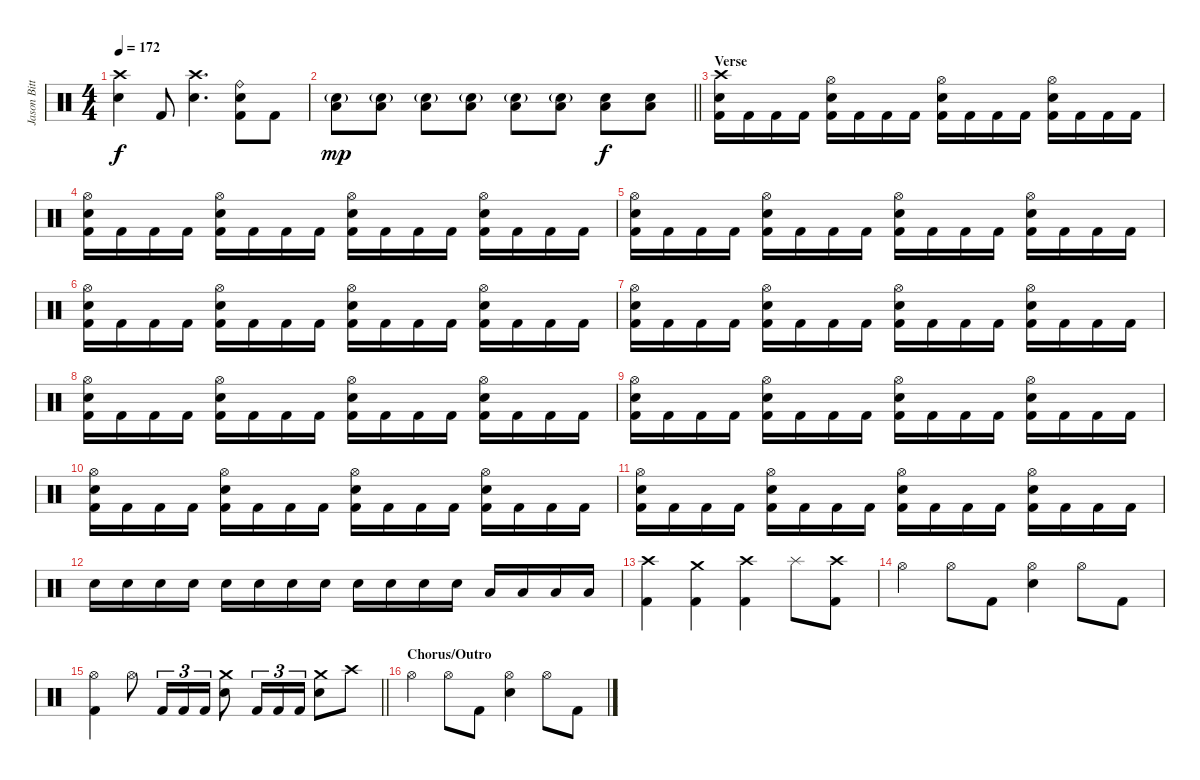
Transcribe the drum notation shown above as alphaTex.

\track ("Jason Bittner" "Jason Bitt") {instrument percussion}
\staff {score}
\articulation defaults
\ts (4 4)
\tempo 172
\clef neutral
\ks c
("Crash high (hit)" "Electric Snare (hit)").4{dy f} "Kick (hit) 2".8 ("Crash high (hit)" "Electric Snare (hit)").4{d} ("Ride (bell)" "Electric Snare (hit)" "Kick (hit) 2").8 "Kick (hit) 2".8{volume 5} |
\barLineRight lightlight
("Low Floor Tom (hit)" "Electric Snare (hit)"{g}).8{dy mp volume 13} ("Low Floor Tom (hit)" "Electric Snare (hit)"{g}).8 ("Low Floor Tom (hit)" "Electric Snare (hit)"{g}).8 ("Low Floor Tom (hit)" "Electric Snare (hit)"{g}).8 ("Low Floor Tom (hit)" "Electric Snare (hit)"{g}).8 ("Low Floor Tom (hit)" "Electric Snare (hit)"{g}).8 ("Low Floor Tom (hit)" "Electric Snare (hit)").8{dy f} ("Low Floor Tom (hit)" "Electric Snare (hit)").8 |
\section ("" "Verse")
("Crash high (hit)" "Electric Snare (hit)" "Kick (hit) 2").16 "Kick (hit) 2".16 "Kick (hit) 2".16 "Kick (hit) 2".16 ("Hi-Hat (open)" "Electric Snare (hit)" "Kick (hit) 2").16 "Kick (hit) 2".16 "Kick (hit) 2".16 "Kick (hit) 2".16 ("Hi-Hat (open)" "Electric Snare (hit)" "Kick (hit) 2").16 "Kick (hit) 2".16 "Kick (hit) 2".16 "Kick (hit) 2".16 ("Hi-Hat (open)" "Electric Snare (hit)" "Kick (hit) 2").16 "Kick (hit) 2".16 "Kick (hit) 2".16 "Kick (hit) 2".16 |
("Hi-Hat (open)" "Electric Snare (hit)" "Kick (hit) 2").16 "Kick (hit) 2".16 "Kick (hit) 2".16 "Kick (hit) 2".16 ("Hi-Hat (open)" "Electric Snare (hit)" "Kick (hit) 2").16 "Kick (hit) 2".16 "Kick (hit) 2".16 "Kick (hit) 2".16 ("Hi-Hat (open)" "Electric Snare (hit)" "Kick (hit) 2").16 "Kick (hit) 2".16 "Kick (hit) 2".16 "Kick (hit) 2".16 ("Hi-Hat (open)" "Electric Snare (hit)" "Kick (hit) 2").16 "Kick (hit) 2".16 "Kick (hit) 2".16 "Kick (hit) 2".16 |
("Hi-Hat (open)" "Electric Snare (hit)" "Kick (hit) 2").16 "Kick (hit) 2".16 "Kick (hit) 2".16 "Kick (hit) 2".16 ("Hi-Hat (open)" "Electric Snare (hit)" "Kick (hit) 2").16 "Kick (hit) 2".16 "Kick (hit) 2".16 "Kick (hit) 2".16 ("Hi-Hat (open)" "Electric Snare (hit)" "Kick (hit) 2").16 "Kick (hit) 2".16 "Kick (hit) 2".16 "Kick (hit) 2".16 ("Hi-Hat (open)" "Electric Snare (hit)" "Kick (hit) 2").16 "Kick (hit) 2".16 "Kick (hit) 2".16 "Kick (hit) 2".16 |
("Hi-Hat (open)" "Electric Snare (hit)" "Kick (hit) 2").16 "Kick (hit) 2".16 "Kick (hit) 2".16 "Kick (hit) 2".16 ("Hi-Hat (open)" "Electric Snare (hit)" "Kick (hit) 2").16 "Kick (hit) 2".16 "Kick (hit) 2".16 "Kick (hit) 2".16 ("Hi-Hat (open)" "Electric Snare (hit)" "Kick (hit) 2").16 "Kick (hit) 2".16 "Kick (hit) 2".16 "Kick (hit) 2".16 ("Hi-Hat (open)" "Electric Snare (hit)" "Kick (hit) 2").16 "Kick (hit) 2".16 "Kick (hit) 2".16 "Kick (hit) 2".16 |
("Hi-Hat (open)" "Electric Snare (hit)" "Kick (hit) 2").16 "Kick (hit) 2".16 "Kick (hit) 2".16 "Kick (hit) 2".16 ("Hi-Hat (open)" "Electric Snare (hit)" "Kick (hit) 2").16 "Kick (hit) 2".16 "Kick (hit) 2".16 "Kick (hit) 2".16 ("Hi-Hat (open)" "Electric Snare (hit)" "Kick (hit) 2").16 "Kick (hit) 2".16 "Kick (hit) 2".16 "Kick (hit) 2".16 ("Hi-Hat (open)" "Electric Snare (hit)" "Kick (hit) 2").16 "Kick (hit) 2".16 "Kick (hit) 2".16 "Kick (hit) 2".16 |
("Hi-Hat (open)" "Electric Snare (hit)" "Kick (hit) 2").16 "Kick (hit) 2".16 "Kick (hit) 2".16 "Kick (hit) 2".16 ("Hi-Hat (open)" "Electric Snare (hit)" "Kick (hit) 2").16 "Kick (hit) 2".16 "Kick (hit) 2".16 "Kick (hit) 2".16 ("Hi-Hat (open)" "Electric Snare (hit)" "Kick (hit) 2").16 "Kick (hit) 2".16 "Kick (hit) 2".16 "Kick (hit) 2".16 ("Hi-Hat (open)" "Electric Snare (hit)" "Kick (hit) 2").16 "Kick (hit) 2".16 "Kick (hit) 2".16 "Kick (hit) 2".16 |
("Hi-Hat (open)" "Electric Snare (hit)" "Kick (hit) 2").16 "Kick (hit) 2".16 "Kick (hit) 2".16 "Kick (hit) 2".16 ("Hi-Hat (open)" "Electric Snare (hit)" "Kick (hit) 2").16 "Kick (hit) 2".16 "Kick (hit) 2".16 "Kick (hit) 2".16 ("Hi-Hat (open)" "Electric Snare (hit)" "Kick (hit) 2").16 "Kick (hit) 2".16 "Kick (hit) 2".16 "Kick (hit) 2".16 ("Hi-Hat (open)" "Electric Snare (hit)" "Kick (hit) 2").16 "Kick (hit) 2".16 "Kick (hit) 2".16 "Kick (hit) 2".16 |
("Hi-Hat (open)" "Electric Snare (hit)" "Kick (hit) 2").16 "Kick (hit) 2".16 "Kick (hit) 2".16 "Kick (hit) 2".16 ("Hi-Hat (open)" "Electric Snare (hit)" "Kick (hit) 2").16 "Kick (hit) 2".16 "Kick (hit) 2".16 "Kick (hit) 2".16 ("Hi-Hat (open)" "Electric Snare (hit)" "Kick (hit) 2").16 "Kick (hit) 2".16 "Kick (hit) 2".16 "Kick (hit) 2".16 ("Hi-Hat (open)" "Electric Snare (hit)" "Kick (hit) 2").16 "Kick (hit) 2".16 "Kick (hit) 2".16 "Kick (hit) 2".16 |
("Hi-Hat (open)" "Electric Snare (hit)" "Kick (hit) 2").16 "Kick (hit) 2".16 "Kick (hit) 2".16 "Kick (hit) 2".16 ("Hi-Hat (open)" "Electric Snare (hit)" "Kick (hit) 2").16 "Kick (hit) 2".16 "Kick (hit) 2".16 "Kick (hit) 2".16 ("Hi-Hat (open)" "Electric Snare (hit)" "Kick (hit) 2").16 "Kick (hit) 2".16 "Kick (hit) 2".16 "Kick (hit) 2".16 ("Hi-Hat (open)" "Electric Snare (hit)" "Kick (hit) 2").16 "Kick (hit) 2".16 "Kick (hit) 2".16 "Kick (hit) 2".16 |
"Electric Snare (hit)".16 "Electric Snare (hit)".16 "Electric Snare (hit)".16 "Electric Snare (hit)".16 "Electric Snare (hit)".16 "Electric Snare (hit)".16 "Electric Snare (hit)".16 "Electric Snare (hit)".16 "Electric Snare (hit)".16 "Electric Snare (hit)".16 "Electric Snare (hit)".16 "Electric Snare (hit)".16 "Low Tom (hit)".16 "Low Tom (hit)".16 "Low Tom (hit)".16 "Low Tom (hit)".16 |
("Crash high (hit)" "Kick (hit) 2").4 ("Crash medium (hit)" "Kick (hit) 2").4 ("Crash high (hit)" "Kick (hit) 2").4 "Splash (hit)".8 ("Crash high (hit)" "Kick (hit) 2").8 |
"Hi-Hat (open)".4 "Hi-Hat (open)".8 "Kick (hit) 2".8 ("Hi-Hat (open)" "Electric Snare (hit)").4 "Hi-Hat (open)".8 "Kick (hit) 2".8 |
\barLineRight lightlight
("Hi-Hat (open)" "Kick (hit) 2").4 "Hi-Hat (open)".8 "Kick (hit) 2".16{tu (3 2)} "Kick (hit) 2".16{tu (3 2)} "Kick (hit) 2".16{tu (3 2)} ("Crash medium (hit)" "Electric Snare (hit)").8 "Kick (hit) 2".16{tu (3 2)} "Kick (hit) 2".16{tu (3 2)} "Kick (hit) 2".16{tu (3 2)} ("Crash medium (hit)" "Electric Snare (hit)").8 "Crash high (hit)".8 |
\section ("" "Chorus/Outro")
"Hi-Hat (open)".4 "Hi-Hat (open)".8 "Kick (hit) 2".8 ("Hi-Hat (open)" "Electric Snare (hit)").4 "Hi-Hat (open)".8 "Kick (hit) 2".8
